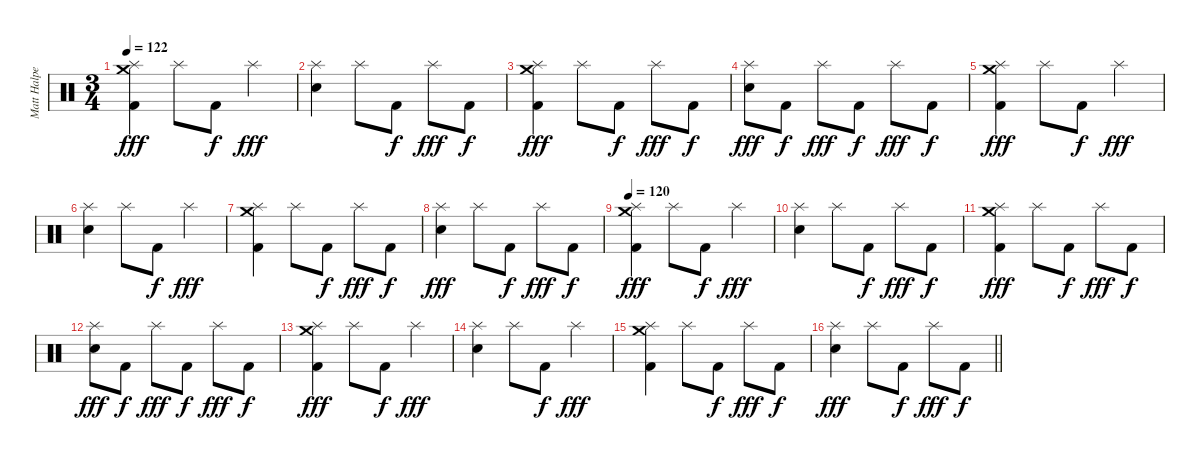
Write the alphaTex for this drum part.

\track ("Matt Halpern - Drums" "Matt Halpe") {instrument percussion}
\staff {score}
\articulation defaults
\ts (3 4)
\section ("" "")
\tempo 122
\clef neutral
\ks c
("Crash medium (hit)" "Splash (hit)" "Kick (hit) 2").4{dy fff} "Splash (hit)".8 "Kick (hit) 2".8{dy f} "Splash (hit)".4{dy fff} |
("Splash (hit)" "Snare (hit) 2").4 "Splash (hit)".8 "Kick (hit) 2".8{dy f} "Splash (hit)".8{dy fff} "Kick (hit) 2".8{dy f} |
("Crash medium (hit)" "Splash (hit)" "Kick (hit) 2").4{dy fff} "Splash (hit)".8 "Kick (hit) 2".8{dy f} "Splash (hit)".8{dy fff} "Kick (hit) 2".8{dy f} |
("Splash (hit)" "Snare (hit) 2").8{dy fff} "Kick (hit) 2".8{dy f} "Splash (hit)".8{dy fff} "Kick (hit) 2".8{dy f} "Splash (hit)".8{dy fff} "Kick (hit) 2".8{dy f} |
("Crash medium (hit)" "Splash (hit)" "Kick (hit) 2").4{dy fff} "Splash (hit)".8 "Kick (hit) 2".8{dy f} "Splash (hit)".4{dy fff} |
("Splash (hit)" "Snare (hit) 2").4 "Splash (hit)".8 "Kick (hit) 2".8{dy f} "Splash (hit)".4{dy fff} |
("Crash medium (hit)" "Splash (hit)" "Kick (hit) 2").4 "Splash (hit)".8 "Kick (hit) 2".8{dy f} "Splash (hit)".8{dy fff} "Kick (hit) 2".8{dy f} |
("Splash (hit)" "Snare (hit) 2").4{dy fff} "Splash (hit)".8 "Kick (hit) 2".8{dy f} "Splash (hit)".8{dy fff} "Kick (hit) 2".8{dy f} |
\tempo 120
("Crash medium (hit)" "Splash (hit)" "Kick (hit) 2").4{dy fff} "Splash (hit)".8 "Kick (hit) 2".8{dy f} "Splash (hit)".4{dy fff} |
("Splash (hit)" "Snare (hit) 2").4 "Splash (hit)".8 "Kick (hit) 2".8{dy f} "Splash (hit)".8{dy fff} "Kick (hit) 2".8{dy f} |
("Crash medium (hit)" "Splash (hit)" "Kick (hit) 2").4{dy fff} "Splash (hit)".8 "Kick (hit) 2".8{dy f} "Splash (hit)".8{dy fff} "Kick (hit) 2".8{dy f} |
("Splash (hit)" "Snare (hit) 2").8{dy fff} "Kick (hit) 2".8{dy f} "Splash (hit)".8{dy fff} "Kick (hit) 2".8{dy f} "Splash (hit)".8{dy fff} "Kick (hit) 2".8{dy f} |
("Crash medium (hit)" "Splash (hit)" "Kick (hit) 2").4{dy fff} "Splash (hit)".8 "Kick (hit) 2".8{dy f} "Splash (hit)".4{dy fff} |
("Splash (hit)" "Snare (hit) 2").4 "Splash (hit)".8 "Kick (hit) 2".8{dy f} "Splash (hit)".4{dy fff} |
("Crash medium (hit)" "Splash (hit)" "Kick (hit) 2").4 "Splash (hit)".8 "Kick (hit) 2".8{dy f} "Splash (hit)".8{dy fff} "Kick (hit) 2".8{dy f} |
\barLineRight lightlight
("Splash (hit)" "Snare (hit) 2").4{dy fff} "Splash (hit)".8 "Kick (hit) 2".8{dy f} "Splash (hit)".8{dy fff} "Kick (hit) 2".8{dy f}
